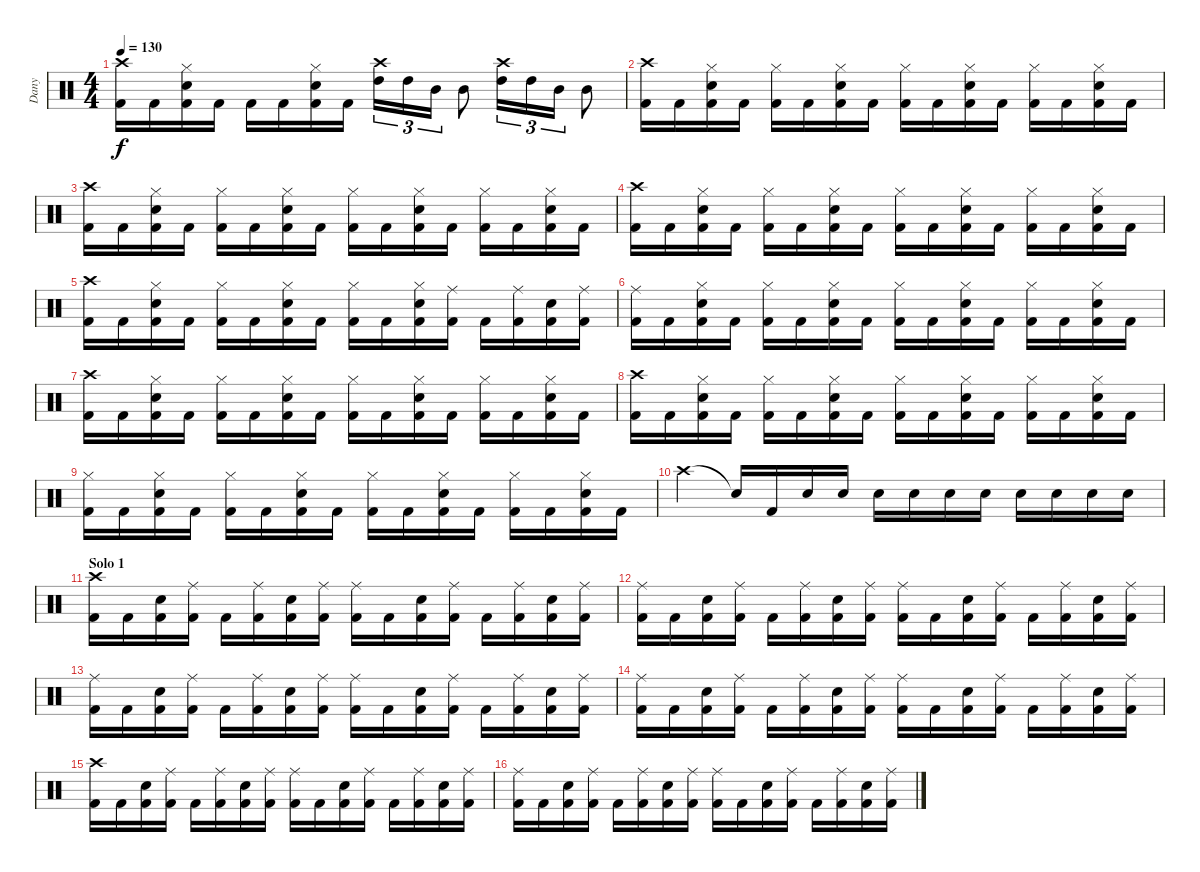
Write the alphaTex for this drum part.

\track ("Dany" "Dany") {instrument percussion}
\staff {score}
\articulation defaults
\ts (4 4)
\tempo 130
\clef neutral
\ks c
("Kick (hit) 2" "Crash high (hit)").16{dy f} "Kick (hit) 2".16 ("Kick (hit) 2" "Electric Snare (hit)" "Hi-Hat (closed)").16 "Kick (hit) 2".16 "Kick (hit) 2".16 "Kick (hit) 2".16 ("Kick (hit) 2" "Electric Snare (hit)" "Hi-Hat (closed)").16 "Kick (hit) 2".16 ("High Tom (hit)" "Crash high (hit)").16{tu (3 2)} "High Tom (hit)".16{tu (3 2)} "Mid Tom (hit)".16{tu (3 2)} "Mid Tom (hit)".8 ("High Tom (hit)" "Crash high (hit)").16{tu (3 2)} "High Tom (hit)".16{tu (3 2)} "Mid Tom (hit)".16{tu (3 2)} "Mid Tom (hit)".8 |
("Kick (hit) 2" "Crash high (hit)").16 "Kick (hit) 2".16 ("Kick (hit) 2" "Electric Snare (hit)" "Hi-Hat (closed)").16 "Kick (hit) 2".16 ("Kick (hit) 2" "Hi-Hat (closed)").16 "Kick (hit) 2".16 ("Kick (hit) 2" "Electric Snare (hit)" "Hi-Hat (closed)").16 "Kick (hit) 2".16 ("Kick (hit) 2" "Hi-Hat (closed)").16 "Kick (hit) 2".16 ("Kick (hit) 2" "Electric Snare (hit)" "Hi-Hat (closed)").16 "Kick (hit) 2".16 ("Kick (hit) 2" "Hi-Hat (closed)").16 "Kick (hit) 2".16 ("Kick (hit) 2" "Electric Snare (hit)" "Hi-Hat (closed)").16 "Kick (hit) 2".16 |
("Kick (hit) 2" "Crash high (hit)").16 "Kick (hit) 2".16 ("Kick (hit) 2" "Electric Snare (hit)" "Hi-Hat (closed)").16 "Kick (hit) 2".16 ("Kick (hit) 2" "Hi-Hat (closed)").16 "Kick (hit) 2".16 ("Kick (hit) 2" "Electric Snare (hit)" "Hi-Hat (closed)").16 "Kick (hit) 2".16 ("Kick (hit) 2" "Hi-Hat (closed)").16 "Kick (hit) 2".16 ("Kick (hit) 2" "Electric Snare (hit)" "Hi-Hat (closed)").16 "Kick (hit) 2".16 ("Kick (hit) 2" "Hi-Hat (closed)").16 "Kick (hit) 2".16 ("Kick (hit) 2" "Electric Snare (hit)" "Hi-Hat (closed)").16 "Kick (hit) 2".16 |
("Kick (hit) 2" "Crash high (hit)").16 "Kick (hit) 2".16 ("Kick (hit) 2" "Electric Snare (hit)" "Hi-Hat (closed)").16 "Kick (hit) 2".16 ("Kick (hit) 2" "Hi-Hat (closed)").16 "Kick (hit) 2".16 ("Kick (hit) 2" "Electric Snare (hit)" "Hi-Hat (closed)").16 "Kick (hit) 2".16 ("Kick (hit) 2" "Hi-Hat (closed)").16 "Kick (hit) 2".16 ("Kick (hit) 2" "Electric Snare (hit)" "Hi-Hat (closed)").16 "Kick (hit) 2".16 ("Kick (hit) 2" "Hi-Hat (closed)").16 "Kick (hit) 2".16 ("Kick (hit) 2" "Electric Snare (hit)" "Hi-Hat (closed)").16 "Kick (hit) 2".16 |
("Kick (hit) 2" "Crash high (hit)").16 "Kick (hit) 2".16 ("Kick (hit) 2" "Electric Snare (hit)" "Hi-Hat (closed)").16 "Kick (hit) 2".16 ("Kick (hit) 2" "Hi-Hat (closed)").16 "Kick (hit) 2".16 ("Kick (hit) 2" "Electric Snare (hit)" "Hi-Hat (closed)").16 "Kick (hit) 2".16 ("Kick (hit) 2" "Hi-Hat (closed)").16 "Kick (hit) 2".16 ("Kick (hit) 2" "Electric Snare (hit)" "Hi-Hat (closed)").16 ("Kick (hit) 2" "Ride (middle)").16 "Kick (hit) 2".16 ("Kick (hit) 2" "Ride (middle)").16 ("Kick (hit) 2" "Electric Snare (hit)").16 ("Kick (hit) 2" "Ride (middle)").16 |
("Kick (hit) 2" "Ride (middle)").16 "Kick (hit) 2".16 ("Kick (hit) 2" "Electric Snare (hit)" "Hi-Hat (closed)").16 "Kick (hit) 2".16 ("Kick (hit) 2" "Hi-Hat (closed)").16 "Kick (hit) 2".16 ("Kick (hit) 2" "Electric Snare (hit)" "Hi-Hat (closed)").16 "Kick (hit) 2".16 ("Kick (hit) 2" "Hi-Hat (closed)").16 "Kick (hit) 2".16 ("Kick (hit) 2" "Electric Snare (hit)" "Hi-Hat (closed)").16 "Kick (hit) 2".16 ("Kick (hit) 2" "Hi-Hat (closed)").16 "Kick (hit) 2".16 ("Kick (hit) 2" "Electric Snare (hit)" "Hi-Hat (closed)").16 "Kick (hit) 2".16 |
("Kick (hit) 2" "Crash high (hit)").16 "Kick (hit) 2".16 ("Kick (hit) 2" "Electric Snare (hit)" "Hi-Hat (closed)").16 "Kick (hit) 2".16 ("Kick (hit) 2" "Hi-Hat (closed)").16 "Kick (hit) 2".16 ("Kick (hit) 2" "Electric Snare (hit)" "Hi-Hat (closed)").16 "Kick (hit) 2".16 ("Kick (hit) 2" "Hi-Hat (closed)").16 "Kick (hit) 2".16 ("Kick (hit) 2" "Electric Snare (hit)" "Hi-Hat (closed)").16 "Kick (hit) 2".16 ("Kick (hit) 2" "Hi-Hat (closed)").16 "Kick (hit) 2".16 ("Kick (hit) 2" "Electric Snare (hit)" "Hi-Hat (closed)").16 "Kick (hit) 2".16 |
("Kick (hit) 2" "Crash high (hit)").16 "Kick (hit) 2".16 ("Kick (hit) 2" "Electric Snare (hit)" "Hi-Hat (closed)").16 "Kick (hit) 2".16 ("Kick (hit) 2" "Hi-Hat (closed)").16 "Kick (hit) 2".16 ("Kick (hit) 2" "Electric Snare (hit)" "Hi-Hat (closed)").16 "Kick (hit) 2".16 ("Kick (hit) 2" "Hi-Hat (closed)").16 "Kick (hit) 2".16 ("Kick (hit) 2" "Electric Snare (hit)" "Hi-Hat (closed)").16 "Kick (hit) 2".16 ("Kick (hit) 2" "Hi-Hat (closed)").16 "Kick (hit) 2".16 ("Kick (hit) 2" "Electric Snare (hit)" "Hi-Hat (closed)").16 "Kick (hit) 2".16 |
("Kick (hit) 2" "Hi-Hat (closed)").16 "Kick (hit) 2".16 ("Kick (hit) 2" "Electric Snare (hit)" "Hi-Hat (closed)").16 "Kick (hit) 2".16 ("Kick (hit) 2" "Hi-Hat (closed)").16 "Kick (hit) 2".16 ("Kick (hit) 2" "Electric Snare (hit)" "Hi-Hat (closed)").16 "Kick (hit) 2".16 ("Kick (hit) 2" "Hi-Hat (closed)").16 "Kick (hit) 2".16 ("Kick (hit) 2" "Electric Snare (hit)" "Hi-Hat (closed)").16 "Kick (hit) 2".16 ("Kick (hit) 2" "Hi-Hat (closed)").16 "Kick (hit) 2".16 ("Kick (hit) 2" "Electric Snare (hit)" "Hi-Hat (closed)").16 "Kick (hit) 2".16 |
"Crash high (hit)".4 "Snare (hit)"{t}.16 "Kick (hit) 2".16 "Electric Snare (hit)".16 "Electric Snare (hit)".16 "Electric Snare (hit)".16 "Electric Snare (hit)".16 "Electric Snare (hit)".16 "Electric Snare (hit)".16 "Electric Snare (hit)".16 "Electric Snare (hit)".16 "Electric Snare (hit)".16 "Electric Snare (hit)".16 |
\section ("" "Solo 1")
("Kick (hit) 2" "Crash high (hit)").16 "Kick (hit) 2".16 ("Kick (hit) 2" "Electric Snare (hit)").16 ("Kick (hit) 2" "Ride (middle)").16 "Kick (hit) 2".16 ("Kick (hit) 2" "Ride (middle)").16 ("Kick (hit) 2" "Electric Snare (hit)").16 ("Kick (hit) 2" "Ride (middle)").16 ("Kick (hit) 2" "Ride (middle)").16 "Kick (hit) 2".16 ("Kick (hit) 2" "Electric Snare (hit)").16 ("Kick (hit) 2" "Ride (middle)").16 "Kick (hit) 2".16 ("Kick (hit) 2" "Ride (middle)").16 ("Kick (hit) 2" "Electric Snare (hit)").16 ("Kick (hit) 2" "Ride (middle)").16 |
("Kick (hit) 2" "Ride (middle)").16 "Kick (hit) 2".16 ("Kick (hit) 2" "Electric Snare (hit)").16 ("Kick (hit) 2" "Ride (middle)").16 "Kick (hit) 2".16 ("Kick (hit) 2" "Ride (middle)").16 ("Kick (hit) 2" "Electric Snare (hit)").16 ("Kick (hit) 2" "Ride (middle)").16 ("Kick (hit) 2" "Ride (middle)").16 "Kick (hit) 2".16 ("Kick (hit) 2" "Electric Snare (hit)").16 ("Kick (hit) 2" "Ride (middle)").16 "Kick (hit) 2".16 ("Kick (hit) 2" "Ride (middle)").16 ("Kick (hit) 2" "Electric Snare (hit)").16 ("Kick (hit) 2" "Ride (middle)").16 |
("Kick (hit) 2" "Ride (middle)").16 "Kick (hit) 2".16 ("Kick (hit) 2" "Electric Snare (hit)").16 ("Kick (hit) 2" "Ride (middle)").16 "Kick (hit) 2".16 ("Kick (hit) 2" "Ride (middle)").16 ("Kick (hit) 2" "Electric Snare (hit)").16 ("Kick (hit) 2" "Ride (middle)").16 ("Kick (hit) 2" "Ride (middle)").16 "Kick (hit) 2".16 ("Kick (hit) 2" "Electric Snare (hit)").16 ("Kick (hit) 2" "Ride (middle)").16 "Kick (hit) 2".16 ("Kick (hit) 2" "Ride (middle)").16 ("Kick (hit) 2" "Electric Snare (hit)").16 ("Kick (hit) 2" "Ride (middle)").16 |
("Kick (hit) 2" "Ride (middle)").16 "Kick (hit) 2".16 ("Kick (hit) 2" "Electric Snare (hit)").16 ("Kick (hit) 2" "Ride (middle)").16 "Kick (hit) 2".16 ("Kick (hit) 2" "Ride (middle)").16 ("Kick (hit) 2" "Electric Snare (hit)").16 ("Kick (hit) 2" "Ride (middle)").16 ("Kick (hit) 2" "Ride (middle)").16 "Kick (hit) 2".16 ("Kick (hit) 2" "Electric Snare (hit)").16 ("Kick (hit) 2" "Ride (middle)").16 "Kick (hit) 2".16 ("Kick (hit) 2" "Ride (middle)").16 ("Kick (hit) 2" "Electric Snare (hit)").16 ("Kick (hit) 2" "Ride (middle)").16 |
("Kick (hit) 2" "Crash high (hit)").16 "Kick (hit) 2".16 ("Kick (hit) 2" "Electric Snare (hit)").16 ("Kick (hit) 2" "Ride (middle)").16 "Kick (hit) 2".16 ("Kick (hit) 2" "Ride (middle)").16 ("Kick (hit) 2" "Electric Snare (hit)").16 ("Kick (hit) 2" "Ride (middle)").16 ("Kick (hit) 2" "Ride (middle)").16 "Kick (hit) 2".16 ("Kick (hit) 2" "Electric Snare (hit)").16 ("Kick (hit) 2" "Ride (middle)").16 "Kick (hit) 2".16 ("Kick (hit) 2" "Ride (middle)").16 ("Kick (hit) 2" "Electric Snare (hit)").16 ("Kick (hit) 2" "Ride (middle)").16 |
("Kick (hit) 2" "Ride (middle)").16 "Kick (hit) 2".16 ("Kick (hit) 2" "Electric Snare (hit)").16 ("Kick (hit) 2" "Ride (middle)").16 "Kick (hit) 2".16 ("Kick (hit) 2" "Ride (middle)").16 ("Kick (hit) 2" "Electric Snare (hit)").16 ("Kick (hit) 2" "Ride (middle)").16 ("Kick (hit) 2" "Ride (middle)").16 "Kick (hit) 2".16 ("Kick (hit) 2" "Electric Snare (hit)").16 ("Kick (hit) 2" "Ride (middle)").16 "Kick (hit) 2".16 ("Kick (hit) 2" "Ride (middle)").16 ("Kick (hit) 2" "Electric Snare (hit)").16 ("Kick (hit) 2" "Ride (middle)").16
